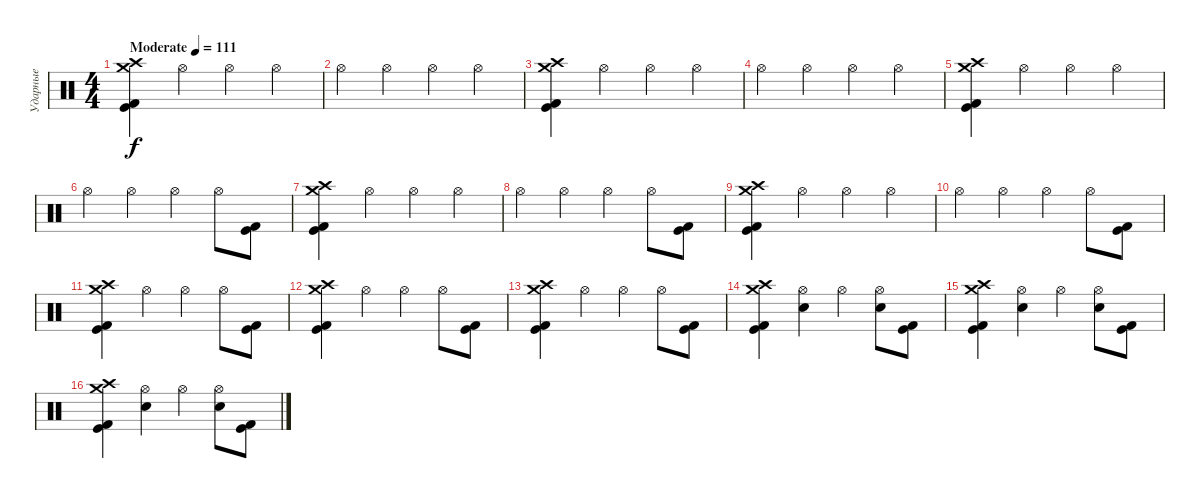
\track ("Ударные" "Ударные") {instrument percussion}
\staff {score}
\articulation defaults
\ts (4 4)
\tempo (111 "Moderate")
\clef neutral
\ks c
("Crash high (hit)" "Kick (hit)" "Kick (hit) 2" "Crash medium (hit)").4{dy f} "Hi-Hat (open)".4 "Hi-Hat (open)".4 "Hi-Hat (open)".4 |
"Hi-Hat (open)".4 "Hi-Hat (open)".4 "Hi-Hat (open)".4 "Hi-Hat (open)".4 |
("Crash high (hit)" "Kick (hit)" "Kick (hit) 2" "Crash medium (hit)").4 "Hi-Hat (open)".4 "Hi-Hat (open)".4 "Hi-Hat (open)".4 |
"Hi-Hat (open)".4 "Hi-Hat (open)".4 "Hi-Hat (open)".4 "Hi-Hat (open)".4 |
("Crash high (hit)" "Kick (hit)" "Kick (hit) 2" "Crash medium (hit)").4 "Hi-Hat (open)".4 "Hi-Hat (open)".4 "Hi-Hat (open)".4 |
"Hi-Hat (open)".4 "Hi-Hat (open)".4 "Hi-Hat (open)".4 "Hi-Hat (open)".8 ("Kick (hit)" "Kick (hit) 2").8 |
("Crash high (hit)" "Kick (hit)" "Kick (hit) 2" "Crash medium (hit)").4 "Hi-Hat (open)".4 "Hi-Hat (open)".4 "Hi-Hat (open)".4 |
"Hi-Hat (open)".4 "Hi-Hat (open)".4 "Hi-Hat (open)".4 "Hi-Hat (open)".8 ("Kick (hit)" "Kick (hit) 2").8 |
("Crash high (hit)" "Kick (hit)" "Kick (hit) 2" "Crash medium (hit)").4 "Hi-Hat (open)".4 "Hi-Hat (open)".4 "Hi-Hat (open)".4 |
"Hi-Hat (open)".4 "Hi-Hat (open)".4 "Hi-Hat (open)".4 "Hi-Hat (open)".8 ("Kick (hit)" "Kick (hit) 2").8 |
("Crash high (hit)" "Kick (hit)" "Kick (hit) 2" "Crash medium (hit)").4 "Hi-Hat (open)".4 "Hi-Hat (open)".4 "Hi-Hat (open)".8 ("Kick (hit)" "Kick (hit) 2").8 |
("Crash high (hit)" "Kick (hit)" "Kick (hit) 2" "Crash medium (hit)").4 "Hi-Hat (open)".4 "Hi-Hat (open)".4 "Hi-Hat (open)".8 ("Kick (hit)" "Kick (hit) 2").8 |
("Crash high (hit)" "Kick (hit)" "Kick (hit) 2" "Crash medium (hit)").4 "Hi-Hat (open)".4 "Hi-Hat (open)".4 "Hi-Hat (open)".8 ("Kick (hit)" "Kick (hit) 2").8 |
("Crash high (hit)" "Kick (hit)" "Kick (hit) 2" "Crash medium (hit)").4 ("Hi-Hat (open)" "Electric Snare (hit)").4 "Hi-Hat (open)".4 ("Hi-Hat (open)" "Electric Snare (hit)").8 ("Kick (hit)" "Kick (hit) 2").8 |
("Crash high (hit)" "Kick (hit)" "Kick (hit) 2" "Crash medium (hit)").4 ("Hi-Hat (open)" "Electric Snare (hit)").4 "Hi-Hat (open)".4 ("Hi-Hat (open)" "Electric Snare (hit)").8 ("Kick (hit)" "Kick (hit) 2").8 |
("Crash high (hit)" "Kick (hit)" "Kick (hit) 2" "Crash medium (hit)").4 ("Hi-Hat (open)" "Electric Snare (hit)").4 "Hi-Hat (open)".4 ("Hi-Hat (open)" "Electric Snare (hit)").8 ("Kick (hit)" "Kick (hit) 2").8
